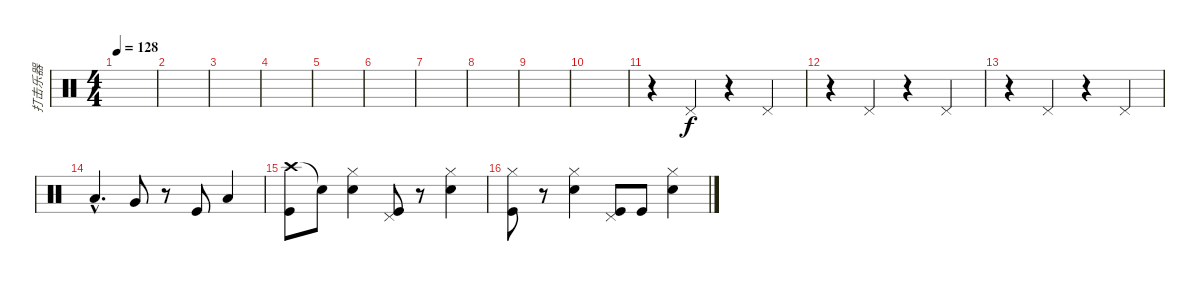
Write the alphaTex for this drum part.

\track ("打击乐器" "打击乐器") {instrument percussion}
\staff {score}
\articulation defaults
\ts (4 4)
\tempo 128
\clef neutral
\ks c
|
|
|
|
|
|
|
|
|
|
r.4 "Pedal Hi-Hat (hit)".4 r.4 "Pedal Hi-Hat (hit)".4 |
r.4 "Pedal Hi-Hat (hit)".4 r.4 "Pedal Hi-Hat (hit)".4 |
r.4 "Pedal Hi-Hat (hit)".4 r.4 "Pedal Hi-Hat (hit)".4 |
"Low Tom (hit)"{hac}.4{d} "Very Low Tom (hit)".8 r.8 "Kick (hit)".8 "Low Floor Tom (hit)".4 |
("Crash high (hit)" "Kick (hit)").8 "Snare (hit)"{t}.8 ("Hi-Hat (closed)" "Snare (hit) 2").4 ("Pedal Hi-Hat (hit)" "Kick (hit)").8 r.8 ("Hi-Hat (closed)" "Snare (hit) 2").4 |
("Hi-Hat (closed)" "Kick (hit)").8 r.8 ("Hi-Hat (closed)" "Snare (hit) 2").4 ("Pedal Hi-Hat (hit)" "Kick (hit)").8 "Kick (hit)".8 ("Hi-Hat (closed)" "Snare (hit) 2").4
